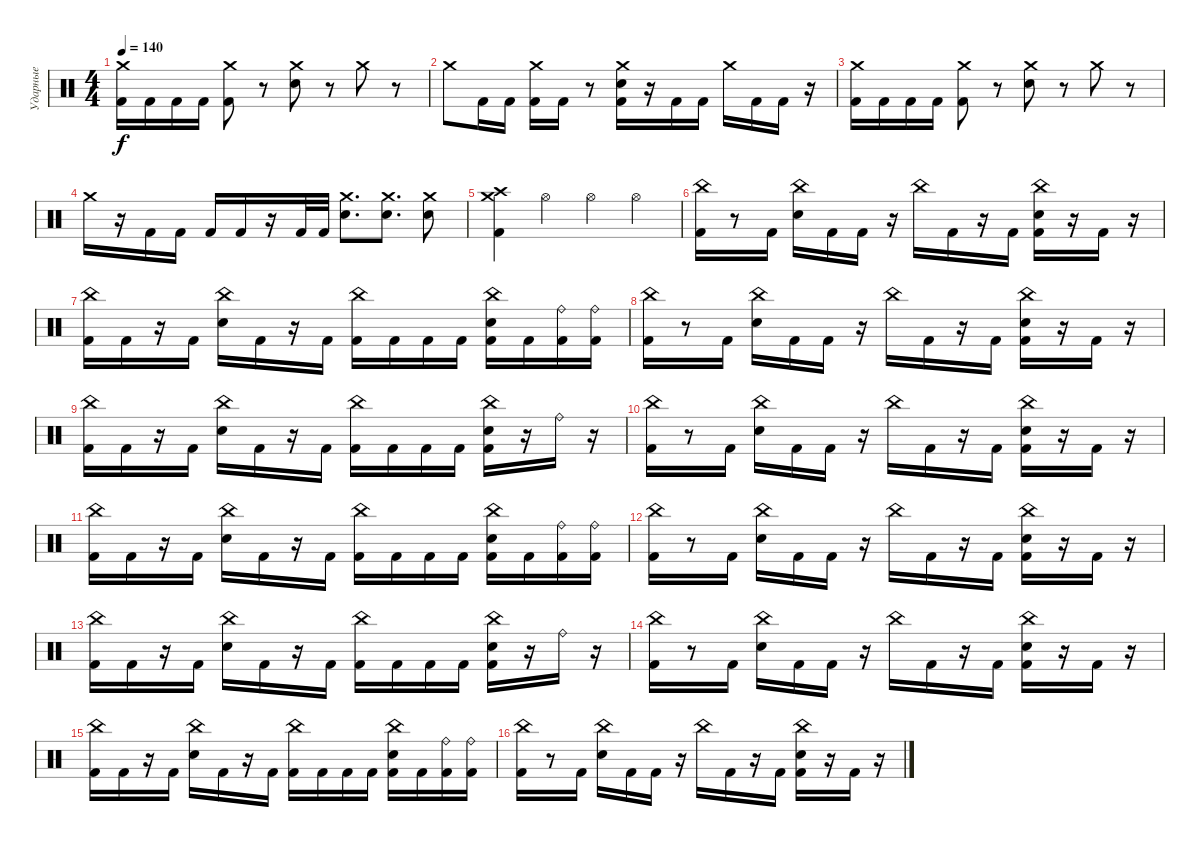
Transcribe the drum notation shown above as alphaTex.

\track ("Ударные" "Ударные") {instrument percussion}
\staff {score}
\articulation defaults
\ts (4 4)
\tempo 140
\clef neutral
\ks c
("Crash medium (hit)" "Kick (hit) 2").16{dy f} "Kick (hit) 2".16 "Kick (hit) 2".16 "Kick (hit) 2".16 ("Crash medium (hit)" "Kick (hit) 2").8 r.8 ("Crash medium (hit)" "Electric Snare (hit)").8 r.8 "Crash medium (hit)".8 r.8 |
"Crash medium (hit)".8 "Kick (hit) 2".16 "Kick (hit) 2".16 ("Crash medium (hit)" "Kick (hit) 2").16 "Kick (hit) 2".16 r.8 ("Crash medium (hit)" "Electric Snare (hit)" "Kick (hit) 2").16 r.16 "Kick (hit) 2".16 "Kick (hit) 2".16 "Crash medium (hit)".16 "Kick (hit) 2".16 "Kick (hit) 2".16 r.16 |
("Crash medium (hit)" "Kick (hit) 2").16 "Kick (hit) 2".16 "Kick (hit) 2".16 "Kick (hit) 2".16 ("Crash medium (hit)" "Kick (hit) 2").8 r.8 ("Crash medium (hit)" "Electric Snare (hit)").8 r.8 "Crash medium (hit)".8 r.8 |
"Crash medium (hit)".16 r.16 "Kick (hit) 2".16 "Kick (hit) 2".16 "Kick (hit) 2".16 "Kick (hit) 2".16 r.16 "Kick (hit) 2".32 "Kick (hit) 2".32 ("Crash medium (hit)" "Electric Snare (hit)").8{d} ("Crash medium (hit)" "Electric Snare (hit)").8{d} ("Crash medium (hit)" "Electric Snare (hit)").8 |
("Crash medium (hit)" "Crash high (hit)" "Kick (hit) 2").4 "Hi-Hat (open)".4 "Hi-Hat (open)".4 "Hi-Hat (open)".4 |
("Kick (hit) 2" "China (hit)").16 r.8 "Kick (hit) 2".16 ("Electric Snare (hit)" "China (hit)").16 "Kick (hit) 2".16 "Kick (hit) 2".16 r.16 "China (hit)".16 "Kick (hit) 2".16 r.16 "Kick (hit) 2".16 ("Kick (hit) 2" "Electric Snare (hit)" "China (hit)").16 r.16 "Kick (hit) 2".16 r.16 |
("China (hit)" "Kick (hit) 2").16 "Kick (hit) 2".16 r.16 "Kick (hit) 2".16 ("Electric Snare (hit)" "China (hit)").16 "Kick (hit) 2".16 r.16 "Kick (hit) 2".16 ("Kick (hit) 2" "China (hit)").16 "Kick (hit) 2".16 "Kick (hit) 2".16 "Kick (hit) 2".16 ("Kick (hit) 2" "China (hit)" "Electric Snare (hit)").16 "Kick (hit) 2".16 ("Kick (hit) 2" "Ride (bell)").16 ("Kick (hit) 2" "Ride (bell)").16 |
("Kick (hit) 2" "China (hit)").16 r.8 "Kick (hit) 2".16 ("Electric Snare (hit)" "China (hit)").16 "Kick (hit) 2".16 "Kick (hit) 2".16 r.16 "China (hit)".16 "Kick (hit) 2".16 r.16 "Kick (hit) 2".16 ("Kick (hit) 2" "Electric Snare (hit)" "China (hit)").16 r.16 "Kick (hit) 2".16 r.16 |
("China (hit)" "Kick (hit) 2").16 "Kick (hit) 2".16 r.16 "Kick (hit) 2".16 ("Electric Snare (hit)" "China (hit)").16 "Kick (hit) 2".16 r.16 "Kick (hit) 2".16 ("Kick (hit) 2" "China (hit)").16 "Kick (hit) 2".16 "Kick (hit) 2".16 "Kick (hit) 2".16 ("Kick (hit) 2" "China (hit)" "Electric Snare (hit)").16 r.16 "Ride (bell)".16 r.16 |
("Kick (hit) 2" "China (hit)").16 r.8 "Kick (hit) 2".16 ("Electric Snare (hit)" "China (hit)").16 "Kick (hit) 2".16 "Kick (hit) 2".16 r.16 "China (hit)".16 "Kick (hit) 2".16 r.16 "Kick (hit) 2".16 ("Kick (hit) 2" "Electric Snare (hit)" "China (hit)").16 r.16 "Kick (hit) 2".16 r.16 |
("China (hit)" "Kick (hit) 2").16 "Kick (hit) 2".16 r.16 "Kick (hit) 2".16 ("Electric Snare (hit)" "China (hit)").16 "Kick (hit) 2".16 r.16 "Kick (hit) 2".16 ("Kick (hit) 2" "China (hit)").16 "Kick (hit) 2".16 "Kick (hit) 2".16 "Kick (hit) 2".16 ("Kick (hit) 2" "China (hit)" "Electric Snare (hit)").16 "Kick (hit) 2".16 ("Kick (hit) 2" "Ride (bell)").16 ("Kick (hit) 2" "Ride (bell)").16 |
("Kick (hit) 2" "China (hit)").16 r.8 "Kick (hit) 2".16 ("Electric Snare (hit)" "China (hit)").16 "Kick (hit) 2".16 "Kick (hit) 2".16 r.16 "China (hit)".16 "Kick (hit) 2".16 r.16 "Kick (hit) 2".16 ("Kick (hit) 2" "Electric Snare (hit)" "China (hit)").16 r.16 "Kick (hit) 2".16 r.16 |
("China (hit)" "Kick (hit) 2").16 "Kick (hit) 2".16 r.16 "Kick (hit) 2".16 ("Electric Snare (hit)" "China (hit)").16 "Kick (hit) 2".16 r.16 "Kick (hit) 2".16 ("Kick (hit) 2" "China (hit)").16 "Kick (hit) 2".16 "Kick (hit) 2".16 "Kick (hit) 2".16 ("Kick (hit) 2" "China (hit)" "Electric Snare (hit)").16 r.16 "Ride (bell)".16 r.16 |
("Kick (hit) 2" "China (hit)").16 r.8 "Kick (hit) 2".16 ("Electric Snare (hit)" "China (hit)").16 "Kick (hit) 2".16 "Kick (hit) 2".16 r.16 "China (hit)".16 "Kick (hit) 2".16 r.16 "Kick (hit) 2".16 ("Kick (hit) 2" "Electric Snare (hit)" "China (hit)").16 r.16 "Kick (hit) 2".16 r.16 |
("China (hit)" "Kick (hit) 2").16 "Kick (hit) 2".16 r.16 "Kick (hit) 2".16 ("Electric Snare (hit)" "China (hit)").16 "Kick (hit) 2".16 r.16 "Kick (hit) 2".16 ("Kick (hit) 2" "China (hit)").16 "Kick (hit) 2".16 "Kick (hit) 2".16 "Kick (hit) 2".16 ("Kick (hit) 2" "China (hit)" "Electric Snare (hit)").16 "Kick (hit) 2".16 ("Kick (hit) 2" "Ride (bell)").16 ("Kick (hit) 2" "Ride (bell)").16 |
("Kick (hit) 2" "China (hit)").16 r.8 "Kick (hit) 2".16 ("Electric Snare (hit)" "China (hit)").16 "Kick (hit) 2".16 "Kick (hit) 2".16 r.16 "China (hit)".16 "Kick (hit) 2".16 r.16 "Kick (hit) 2".16 ("Kick (hit) 2" "Electric Snare (hit)" "China (hit)").16 r.16 "Kick (hit) 2".16 r.16
